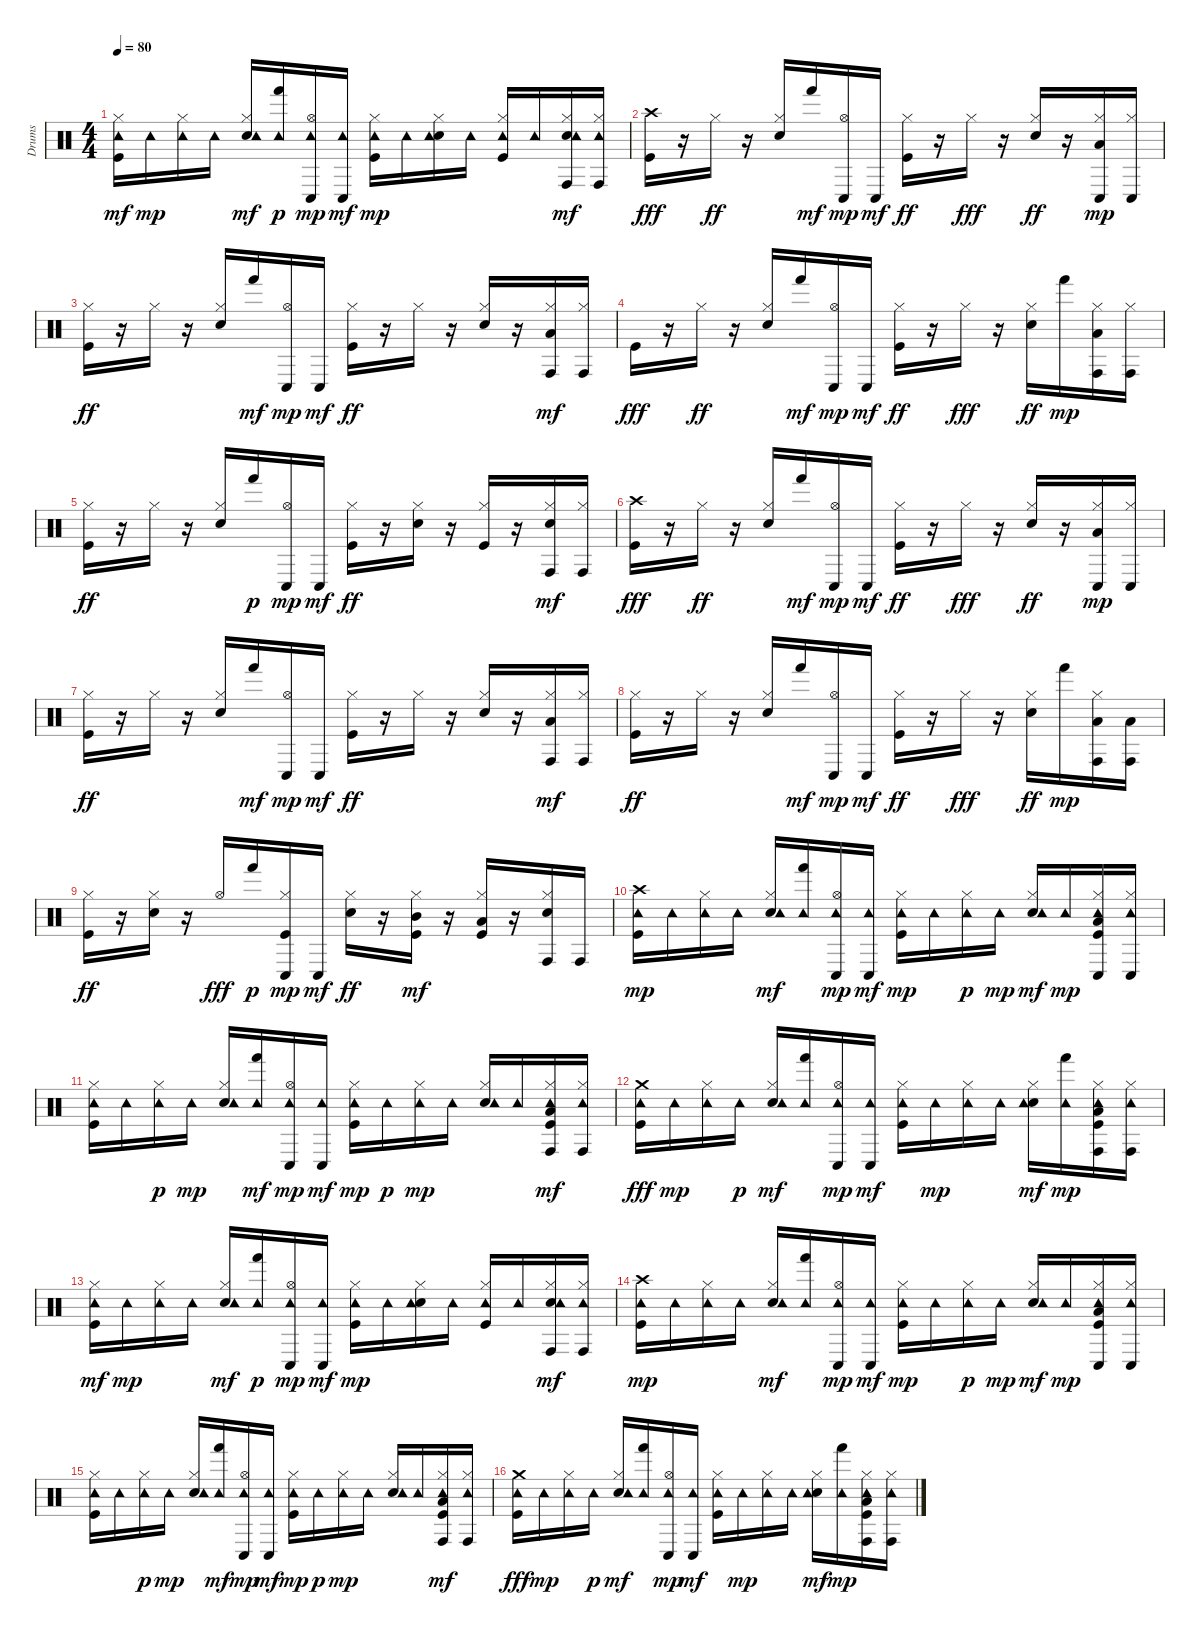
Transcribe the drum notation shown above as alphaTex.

\track ("Drums" "Drums") {instrument percussion}
\staff {score}
\articulation defaults
\ts (4 4)
\tempo 80
\clef neutral
\ks c
("Kick (hit)" "Hi-Hat (closed)" "Tambourine (hit)").16{dy mf} "Tambourine (hit)".16{dy mp} ("Hi-Hat (closed)" "Tambourine (hit)").16 "Tambourine (hit)".16 ("Electric Snare (hit)" "Hi-Hat (closed)" "Tambourine (hit)").16{dy mf} ("Tambourine (hit)" "Hand (hit)").16{dy p} ("Hi-Hat (open)" "Tambourine (hit)" "Conga low (hit)").16{dy mp} ("Tambourine (hit)" "Conga low (hit)").16{dy mf} ("Kick (hit)" "Hi-Hat (closed)" "Tambourine (hit)").16{dy mp} "Tambourine (hit)".16 ("Electric Snare (hit)" "Hi-Hat (closed)" "Tambourine (hit)").16 "Tambourine (hit)".16 ("Kick (hit)" "Hi-Hat (closed)" "Tambourine (hit)").16 "Tambourine (hit)".16 ("Electric Snare (hit)" "Hi-Hat (closed)" "Tambourine (hit)" "Conga high (hit)").16{dy mf} ("Hi-Hat (closed)" "Tambourine (hit)" "Conga high (hit)").16 |
("Kick (hit)" "Crash high (hit)").16{dy fff} r.16 "Hi-Hat (closed)".16{dy ff} r.16 ("Electric Snare (hit)" "Hi-Hat (closed)").16 "Hand (hit)".16{dy mf} ("Hi-Hat (open)" "Conga low (hit)").16{dy mp} "Conga low (hit)".16{dy mf} ("Kick (hit)" "Hi-Hat (closed)").16{dy ff} r.16 "Hi-Hat (closed)".16{dy fff} r.16 ("Electric Snare (hit)" "Hi-Hat (closed)").16{dy ff} r.16 ("Hi-Hat (closed)" "Low Tom (hit)" "Conga low (hit)").16{dy mp} ("Hi-Hat (closed)" "Conga low (hit)").16 |
("Kick (hit)" "Hi-Hat (closed)").16{dy ff} r.16 "Hi-Hat (closed)".16 r.16 ("Electric Snare (hit)" "Hi-Hat (closed)").16 "Hand (hit)".16{dy mf} ("Hi-Hat (open)" "Conga low (hit)").16{dy mp} "Conga low (hit)".16{dy mf} ("Kick (hit)" "Hi-Hat (closed)").16{dy ff} r.16 "Hi-Hat (closed)".16 r.16 ("Electric Snare (hit)" "Hi-Hat (closed)").16 r.16 ("Hi-Hat (closed)" "Low Tom (hit)" "Conga high (hit)").16{dy mf} ("Hi-Hat (closed)" "Conga high (hit)").16 |
"Kick (hit)".16{dy fff} r.16 "Hi-Hat (closed)".16{dy ff} r.16 ("Electric Snare (hit)" "Hi-Hat (closed)").16 "Hand (hit)".16{dy mf} ("Hi-Hat (open)" "Conga low (hit)").16{dy mp} "Conga low (hit)".16{dy mf} ("Kick (hit)" "Hi-Hat (closed)").16{dy ff} r.16 "Hi-Hat (closed)".16{dy fff} r.16 ("Electric Snare (hit)" "Hi-Hat (closed)").16{dy ff} "Hand (hit)".16{dy mp} ("Hi-Hat (closed)" "Low Tom (hit)" "Conga high (hit)").16 ("Hi-Hat (closed)" "Conga high (hit)").16 |
("Kick (hit)" "Hi-Hat (closed)").16{dy ff} r.16 "Hi-Hat (closed)".16 r.16 ("Electric Snare (hit)" "Hi-Hat (closed)").16 "Hand (hit)".16{dy p} ("Hi-Hat (open)" "Conga low (hit)").16{dy mp} "Conga low (hit)".16{dy mf} ("Kick (hit)" "Hi-Hat (closed)").16{dy ff} r.16 ("Electric Snare (hit)" "Hi-Hat (closed)").16 r.16 ("Kick (hit)" "Hi-Hat (closed)").16 r.16 ("Electric Snare (hit)" "Hi-Hat (closed)" "Conga high (hit)").16{dy mf} ("Hi-Hat (closed)" "Conga high (hit)").16 |
("Kick (hit)" "Crash high (hit)").16{dy fff} r.16 "Hi-Hat (closed)".16{dy ff} r.16 ("Electric Snare (hit)" "Hi-Hat (closed)").16 "Hand (hit)".16{dy mf} ("Hi-Hat (open)" "Conga low (hit)").16{dy mp} "Conga low (hit)".16{dy mf} ("Kick (hit)" "Hi-Hat (closed)").16{dy ff} r.16 "Hi-Hat (closed)".16{dy fff} r.16 ("Electric Snare (hit)" "Hi-Hat (closed)").16{dy ff} r.16 ("Hi-Hat (closed)" "Low Tom (hit)" "Conga low (hit)").16{dy mp} ("Hi-Hat (closed)" "Conga low (hit)").16 |
("Kick (hit)" "Hi-Hat (closed)").16{dy ff} r.16 "Hi-Hat (closed)".16 r.16 ("Electric Snare (hit)" "Hi-Hat (closed)").16 "Hand (hit)".16{dy mf} ("Hi-Hat (open)" "Conga low (hit)").16{dy mp} "Conga low (hit)".16{dy mf} ("Kick (hit)" "Hi-Hat (closed)").16{dy ff} r.16 "Hi-Hat (closed)".16 r.16 ("Electric Snare (hit)" "Hi-Hat (closed)").16 r.16 ("Hi-Hat (closed)" "Low Tom (hit)" "Conga high (hit)").16{dy mf} ("Hi-Hat (closed)" "Conga high (hit)").16 |
("Kick (hit)" "Hi-Hat (closed)").16{dy ff} r.16 "Hi-Hat (closed)".16 r.16 ("Electric Snare (hit)" "Hi-Hat (closed)").16 "Hand (hit)".16{dy mf} ("Hi-Hat (open)" "Conga low (hit)").16{dy mp} "Conga low (hit)".16{dy mf} ("Kick (hit)" "Hi-Hat (closed)").16{dy ff} r.16 "Hi-Hat (closed)".16{dy fff} r.16 ("Electric Snare (hit)" "Hi-Hat (closed)").16{dy ff} "Hand (hit)".16{dy mp} ("Hi-Hat (closed)" "Low Tom (hit)" "Conga high (hit)").16 ("Low Tom (hit)" "Conga high (hit)").16 |
("Kick (hit)" "Hi-Hat (closed)").16{dy ff} r.16 ("Electric Snare (hit)" "Hi-Hat (closed)").16 r.16 "Hi-Hat (open)".16{dy fff} "Hand (hit)".16{dy p} ("Kick (hit)" "Hi-Hat (closed)" "Conga low (hit)").16{dy mp} "Conga low (hit)".16{dy mf} ("Electric Snare (hit)" "Hi-Hat (closed)").16{dy ff} r.16 ("Kick (hit)" "Hi-Hat (closed)" "Mid Tom (hit)").16{dy mf} r.16 ("Kick (hit)" "Hi-Hat (closed)" "Low Tom (hit)").16 r.16 ("Electric Snare (hit)" "Hi-Hat (closed)" "Conga high (hit)").16 "Conga high (hit)".16 |
("Kick (hit)" "Crash high (hit)" "Tambourine (hit)").16{dy mp} "Tambourine (hit)".16 ("Hi-Hat (closed)" "Tambourine (hit)").16 "Tambourine (hit)".16 ("Electric Snare (hit)" "Hi-Hat (closed)" "Tambourine (hit)").16{dy mf} ("Tambourine (hit)" "Hand (hit)").16 ("Hi-Hat (open)" "Tambourine (hit)" "Conga low (hit)").16{dy mp} ("Tambourine (hit)" "Conga low (hit)").16{dy mf} ("Kick (hit)" "Hi-Hat (closed)" "Tambourine (hit)").16{dy mp} "Tambourine (hit)".16 ("Hi-Hat (closed)" "Tambourine (hit)").16{dy p} "Tambourine (hit)".16{dy mp} ("Electric Snare (hit)" "Hi-Hat (closed)" "Tambourine (hit)").16{dy mf} "Tambourine (hit)".16{dy mp} ("Kick (hit)" "Hi-Hat (closed)" "Low Tom (hit)" "Tambourine (hit)" "Conga low (hit)").16 ("Hi-Hat (closed)" "Tambourine (hit)" "Conga low (hit)").16 |
("Kick (hit)" "Hi-Hat (closed)" "Tambourine (hit)").16 "Tambourine (hit)".16 ("Hi-Hat (closed)" "Tambourine (hit)").16{dy p} "Tambourine (hit)".16{dy mp} ("Electric Snare (hit)" "Hi-Hat (closed)" "Tambourine (hit)").16 ("Tambourine (hit)" "Hand (hit)").16{dy mf} ("Hi-Hat (open)" "Tambourine (hit)" "Conga low (hit)").16{dy mp} ("Tambourine (hit)" "Conga low (hit)").16{dy mf} ("Kick (hit)" "Hi-Hat (closed)" "Tambourine (hit)").16{dy mp} "Tambourine (hit)".16{dy p} ("Hi-Hat (closed)" "Tambourine (hit)").16{dy mp} "Tambourine (hit)".16 ("Electric Snare (hit)" "Hi-Hat (closed)" "Tambourine (hit)").16 "Tambourine (hit)".16 ("Kick (hit)" "Hi-Hat (closed)" "Low Tom (hit)" "Tambourine (hit)" "Conga high (hit)").16{dy mf} ("Hi-Hat (closed)" "Tambourine (hit)" "Conga high (hit)").16 |
("Kick (hit)" "Tambourine (hit)" "Crash medium (hit)").16{dy fff} "Tambourine (hit)".16{dy mp} ("Hi-Hat (closed)" "Tambourine (hit)").16 "Tambourine (hit)".16{dy p} ("Electric Snare (hit)" "Hi-Hat (closed)" "Tambourine (hit)").16{dy mf} ("Tambourine (hit)" "Hand (hit)").16 ("Hi-Hat (open)" "Tambourine (hit)" "Conga low (hit)").16{dy mp} ("Tambourine (hit)" "Conga low (hit)").16{dy mf} ("Kick (hit)" "Hi-Hat (closed)" "Tambourine (hit)").16 "Tambourine (hit)".16{dy mp} ("Hi-Hat (closed)" "Tambourine (hit)").16 "Tambourine (hit)".16 ("Electric Snare (hit)" "Hi-Hat (closed)" "Tambourine (hit)").16{dy mf} ("Tambourine (hit)" "Hand (hit)").16{dy mp} ("Kick (hit)" "Hi-Hat (closed)" "Low Tom (hit)" "Tambourine (hit)" "Conga high (hit)").16 ("Hi-Hat (closed)" "Tambourine (hit)" "Conga high (hit)").16 |
("Kick (hit)" "Hi-Hat (closed)" "Tambourine (hit)").16{dy mf} "Tambourine (hit)".16{dy mp} ("Hi-Hat (closed)" "Tambourine (hit)").16 "Tambourine (hit)".16 ("Electric Snare (hit)" "Hi-Hat (closed)" "Tambourine (hit)").16{dy mf} ("Tambourine (hit)" "Hand (hit)").16{dy p} ("Hi-Hat (open)" "Tambourine (hit)" "Conga low (hit)").16{dy mp} ("Tambourine (hit)" "Conga low (hit)").16{dy mf} ("Kick (hit)" "Hi-Hat (closed)" "Tambourine (hit)").16{dy mp} "Tambourine (hit)".16 ("Electric Snare (hit)" "Hi-Hat (closed)" "Tambourine (hit)").16 "Tambourine (hit)".16 ("Kick (hit)" "Hi-Hat (closed)" "Tambourine (hit)").16 "Tambourine (hit)".16 ("Electric Snare (hit)" "Hi-Hat (closed)" "Tambourine (hit)" "Conga high (hit)").16{dy mf} ("Hi-Hat (closed)" "Tambourine (hit)" "Conga high (hit)").16 |
("Kick (hit)" "Crash high (hit)" "Tambourine (hit)").16{dy mp} "Tambourine (hit)".16 ("Hi-Hat (closed)" "Tambourine (hit)").16 "Tambourine (hit)".16 ("Electric Snare (hit)" "Hi-Hat (closed)" "Tambourine (hit)").16{dy mf} ("Tambourine (hit)" "Hand (hit)").16 ("Hi-Hat (open)" "Tambourine (hit)" "Conga low (hit)").16{dy mp} ("Tambourine (hit)" "Conga low (hit)").16{dy mf} ("Kick (hit)" "Hi-Hat (closed)" "Tambourine (hit)").16{dy mp} "Tambourine (hit)".16 ("Hi-Hat (closed)" "Tambourine (hit)").16{dy p} "Tambourine (hit)".16{dy mp} ("Electric Snare (hit)" "Hi-Hat (closed)" "Tambourine (hit)").16{dy mf} "Tambourine (hit)".16{dy mp} ("Kick (hit)" "Hi-Hat (closed)" "Low Tom (hit)" "Tambourine (hit)" "Conga low (hit)").16 ("Hi-Hat (closed)" "Tambourine (hit)" "Conga low (hit)").16 |
("Kick (hit)" "Hi-Hat (closed)" "Tambourine (hit)").16 "Tambourine (hit)".16 ("Hi-Hat (closed)" "Tambourine (hit)").16{dy p} "Tambourine (hit)".16{dy mp} ("Electric Snare (hit)" "Hi-Hat (closed)" "Tambourine (hit)").16 ("Tambourine (hit)" "Hand (hit)").16{dy mf} ("Hi-Hat (open)" "Tambourine (hit)" "Conga low (hit)").16{dy mp} ("Tambourine (hit)" "Conga low (hit)").16{dy mf} ("Kick (hit)" "Hi-Hat (closed)" "Tambourine (hit)").16{dy mp} "Tambourine (hit)".16{dy p} ("Hi-Hat (closed)" "Tambourine (hit)").16{dy mp} "Tambourine (hit)".16 ("Electric Snare (hit)" "Hi-Hat (closed)" "Tambourine (hit)").16 "Tambourine (hit)".16 ("Kick (hit)" "Hi-Hat (closed)" "Low Tom (hit)" "Tambourine (hit)" "Conga high (hit)").16{dy mf} ("Hi-Hat (closed)" "Tambourine (hit)" "Conga high (hit)").16 |
("Kick (hit)" "Tambourine (hit)" "Crash medium (hit)").16{dy fff} "Tambourine (hit)".16{dy mp} ("Hi-Hat (closed)" "Tambourine (hit)").16 "Tambourine (hit)".16{dy p} ("Electric Snare (hit)" "Hi-Hat (closed)" "Tambourine (hit)").16{dy mf} ("Tambourine (hit)" "Hand (hit)").16 ("Hi-Hat (open)" "Tambourine (hit)" "Conga low (hit)").16{dy mp} ("Tambourine (hit)" "Conga low (hit)").16{dy mf} ("Kick (hit)" "Hi-Hat (closed)" "Tambourine (hit)").16 "Tambourine (hit)".16{dy mp} ("Hi-Hat (closed)" "Tambourine (hit)").16 "Tambourine (hit)".16 ("Electric Snare (hit)" "Hi-Hat (closed)" "Tambourine (hit)").16{dy mf} ("Tambourine (hit)" "Hand (hit)").16{dy mp} ("Kick (hit)" "Hi-Hat (closed)" "Low Tom (hit)" "Tambourine (hit)" "Conga high (hit)").16 ("Hi-Hat (closed)" "Tambourine (hit)" "Conga high (hit)").16
